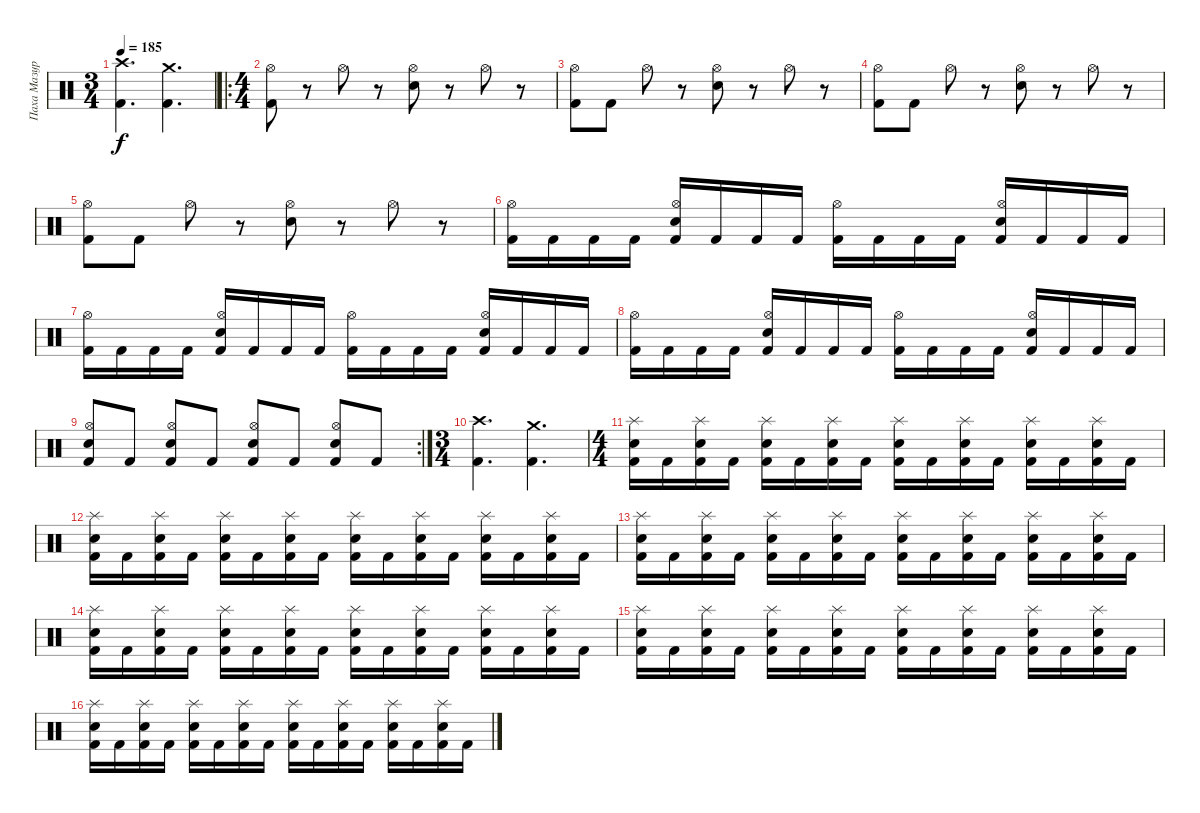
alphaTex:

\track ("Паха Мазуркевич" "Паха Мазур") {instrument percussion}
\staff {score}
\articulation defaults
\ts (3 4)
\tempo 185
\clef neutral
\ks c
("Crash high (hit)" "Kick (hit) 2").4{d dy f} ("Crash medium (hit)" "Kick (hit) 2").4{d} |
\ro
\ts (4 4)
("Hi-Hat (open)" "Kick (hit) 2").8 r.8 "Hi-Hat (open)".8 r.8 ("Hi-Hat (open)" "Snare (hit) 2").8 r.8 "Hi-Hat (open)".8 r.8 |
("Hi-Hat (open)" "Kick (hit) 2").8 "Kick (hit) 2".8 "Hi-Hat (open)".8 r.8 ("Hi-Hat (open)" "Snare (hit) 2").8 r.8 "Hi-Hat (open)".8 r.8 |
("Hi-Hat (open)" "Kick (hit) 2").8 "Kick (hit) 2".8 "Hi-Hat (open)".8 r.8 ("Hi-Hat (open)" "Snare (hit) 2").8 r.8 "Hi-Hat (open)".8 r.8 |
("Hi-Hat (open)" "Kick (hit) 2").8 "Kick (hit) 2".8 "Hi-Hat (open)".8 r.8 ("Hi-Hat (open)" "Snare (hit) 2").8 r.8 "Hi-Hat (open)".8 r.8 |
("Hi-Hat (open)" "Kick (hit) 2").16 "Kick (hit) 2".16 "Kick (hit) 2".16 "Kick (hit) 2".16 ("Hi-Hat (open)" "Snare (hit) 2" "Kick (hit) 2").16 "Kick (hit) 2".16 "Kick (hit) 2".16 "Kick (hit) 2".16 ("Hi-Hat (open)" "Kick (hit) 2").16 "Kick (hit) 2".16 "Kick (hit) 2".16 "Kick (hit) 2".16 ("Hi-Hat (open)" "Snare (hit) 2" "Kick (hit) 2").16 "Kick (hit) 2".16 "Kick (hit) 2".16 "Kick (hit) 2".16 |
("Hi-Hat (open)" "Kick (hit) 2").16 "Kick (hit) 2".16 "Kick (hit) 2".16 "Kick (hit) 2".16 ("Hi-Hat (open)" "Snare (hit) 2" "Kick (hit) 2").16 "Kick (hit) 2".16 "Kick (hit) 2".16 "Kick (hit) 2".16 ("Hi-Hat (open)" "Kick (hit) 2").16 "Kick (hit) 2".16 "Kick (hit) 2".16 "Kick (hit) 2".16 ("Hi-Hat (open)" "Snare (hit) 2" "Kick (hit) 2").16 "Kick (hit) 2".16 "Kick (hit) 2".16 "Kick (hit) 2".16 |
("Hi-Hat (open)" "Kick (hit) 2").16 "Kick (hit) 2".16 "Kick (hit) 2".16 "Kick (hit) 2".16 ("Hi-Hat (open)" "Snare (hit) 2" "Kick (hit) 2").16 "Kick (hit) 2".16 "Kick (hit) 2".16 "Kick (hit) 2".16 ("Hi-Hat (open)" "Kick (hit) 2").16 "Kick (hit) 2".16 "Kick (hit) 2".16 "Kick (hit) 2".16 ("Hi-Hat (open)" "Snare (hit) 2" "Kick (hit) 2").16 "Kick (hit) 2".16 "Kick (hit) 2".16 "Kick (hit) 2".16 |
\rc 2
("Hi-Hat (open)" "Snare (hit) 2" "Kick (hit) 2").8 "Kick (hit) 2".8 ("Hi-Hat (open)" "Snare (hit) 2" "Kick (hit) 2").8 "Kick (hit) 2".8 ("Hi-Hat (open)" "Snare (hit) 2" "Kick (hit) 2").8 "Kick (hit) 2".8 ("Hi-Hat (open)" "Snare (hit) 2" "Kick (hit) 2").8 "Kick (hit) 2".8 |
\ts (3 4)
("Crash high (hit)" "Kick (hit) 2").4{d} ("Crash medium (hit)" "Kick (hit) 2").4{d} |
\ts (4 4)
("Splash (hit)" "Snare (hit) 2" "Kick (hit) 2").16 "Kick (hit) 2".16 ("Splash (hit)" "Snare (hit) 2" "Kick (hit) 2").16 "Kick (hit) 2".16 ("Splash (hit)" "Snare (hit) 2" "Kick (hit) 2").16 "Kick (hit) 2".16 ("Splash (hit)" "Snare (hit) 2" "Kick (hit) 2").16 "Kick (hit) 2".16 ("Splash (hit)" "Snare (hit) 2" "Kick (hit) 2").16 "Kick (hit) 2".16 ("Splash (hit)" "Snare (hit) 2" "Kick (hit) 2").16 "Kick (hit) 2".16 ("Splash (hit)" "Snare (hit) 2" "Kick (hit) 2").16 "Kick (hit) 2".16 ("Splash (hit)" "Snare (hit) 2" "Kick (hit) 2").16 "Kick (hit) 2".16 |
("Splash (hit)" "Snare (hit) 2" "Kick (hit) 2").16 "Kick (hit) 2".16 ("Splash (hit)" "Snare (hit) 2" "Kick (hit) 2").16 "Kick (hit) 2".16 ("Splash (hit)" "Snare (hit) 2" "Kick (hit) 2").16 "Kick (hit) 2".16 ("Splash (hit)" "Snare (hit) 2" "Kick (hit) 2").16 "Kick (hit) 2".16 ("Splash (hit)" "Snare (hit) 2" "Kick (hit) 2").16 "Kick (hit) 2".16 ("Splash (hit)" "Snare (hit) 2" "Kick (hit) 2").16 "Kick (hit) 2".16 ("Splash (hit)" "Snare (hit) 2" "Kick (hit) 2").16 "Kick (hit) 2".16 ("Splash (hit)" "Snare (hit) 2" "Kick (hit) 2").16 "Kick (hit) 2".16 |
("Splash (hit)" "Snare (hit) 2" "Kick (hit) 2").16 "Kick (hit) 2".16 ("Splash (hit)" "Snare (hit) 2" "Kick (hit) 2").16 "Kick (hit) 2".16 ("Splash (hit)" "Snare (hit) 2" "Kick (hit) 2").16 "Kick (hit) 2".16 ("Splash (hit)" "Snare (hit) 2" "Kick (hit) 2").16 "Kick (hit) 2".16 ("Splash (hit)" "Snare (hit) 2" "Kick (hit) 2").16 "Kick (hit) 2".16 ("Splash (hit)" "Snare (hit) 2" "Kick (hit) 2").16 "Kick (hit) 2".16 ("Splash (hit)" "Snare (hit) 2" "Kick (hit) 2").16 "Kick (hit) 2".16 ("Splash (hit)" "Snare (hit) 2" "Kick (hit) 2").16 "Kick (hit) 2".16 |
("Splash (hit)" "Snare (hit) 2" "Kick (hit) 2").16 "Kick (hit) 2".16 ("Splash (hit)" "Snare (hit) 2" "Kick (hit) 2").16 "Kick (hit) 2".16 ("Splash (hit)" "Snare (hit) 2" "Kick (hit) 2").16 "Kick (hit) 2".16 ("Splash (hit)" "Snare (hit) 2" "Kick (hit) 2").16 "Kick (hit) 2".16 ("Splash (hit)" "Snare (hit) 2" "Kick (hit) 2").16 "Kick (hit) 2".16 ("Splash (hit)" "Snare (hit) 2" "Kick (hit) 2").16 "Kick (hit) 2".16 ("Splash (hit)" "Snare (hit) 2" "Kick (hit) 2").16 "Kick (hit) 2".16 ("Splash (hit)" "Snare (hit) 2" "Kick (hit) 2").16 "Kick (hit) 2".16 |
("Splash (hit)" "Snare (hit) 2" "Kick (hit) 2").16 "Kick (hit) 2".16 ("Splash (hit)" "Snare (hit) 2" "Kick (hit) 2").16 "Kick (hit) 2".16 ("Splash (hit)" "Snare (hit) 2" "Kick (hit) 2").16 "Kick (hit) 2".16 ("Splash (hit)" "Snare (hit) 2" "Kick (hit) 2").16 "Kick (hit) 2".16 ("Splash (hit)" "Snare (hit) 2" "Kick (hit) 2").16 "Kick (hit) 2".16 ("Splash (hit)" "Snare (hit) 2" "Kick (hit) 2").16 "Kick (hit) 2".16 ("Splash (hit)" "Snare (hit) 2" "Kick (hit) 2").16 "Kick (hit) 2".16 ("Splash (hit)" "Snare (hit) 2" "Kick (hit) 2").16 "Kick (hit) 2".16 |
("Splash (hit)" "Snare (hit) 2" "Kick (hit) 2").16 "Kick (hit) 2".16 ("Splash (hit)" "Snare (hit) 2" "Kick (hit) 2").16 "Kick (hit) 2".16 ("Splash (hit)" "Snare (hit) 2" "Kick (hit) 2").16 "Kick (hit) 2".16 ("Splash (hit)" "Snare (hit) 2" "Kick (hit) 2").16 "Kick (hit) 2".16 ("Splash (hit)" "Snare (hit) 2" "Kick (hit) 2").16 "Kick (hit) 2".16 ("Splash (hit)" "Snare (hit) 2" "Kick (hit) 2").16 "Kick (hit) 2".16 ("Splash (hit)" "Snare (hit) 2" "Kick (hit) 2").16 "Kick (hit) 2".16 ("Splash (hit)" "Snare (hit) 2" "Kick (hit) 2").16 "Kick (hit) 2".16
